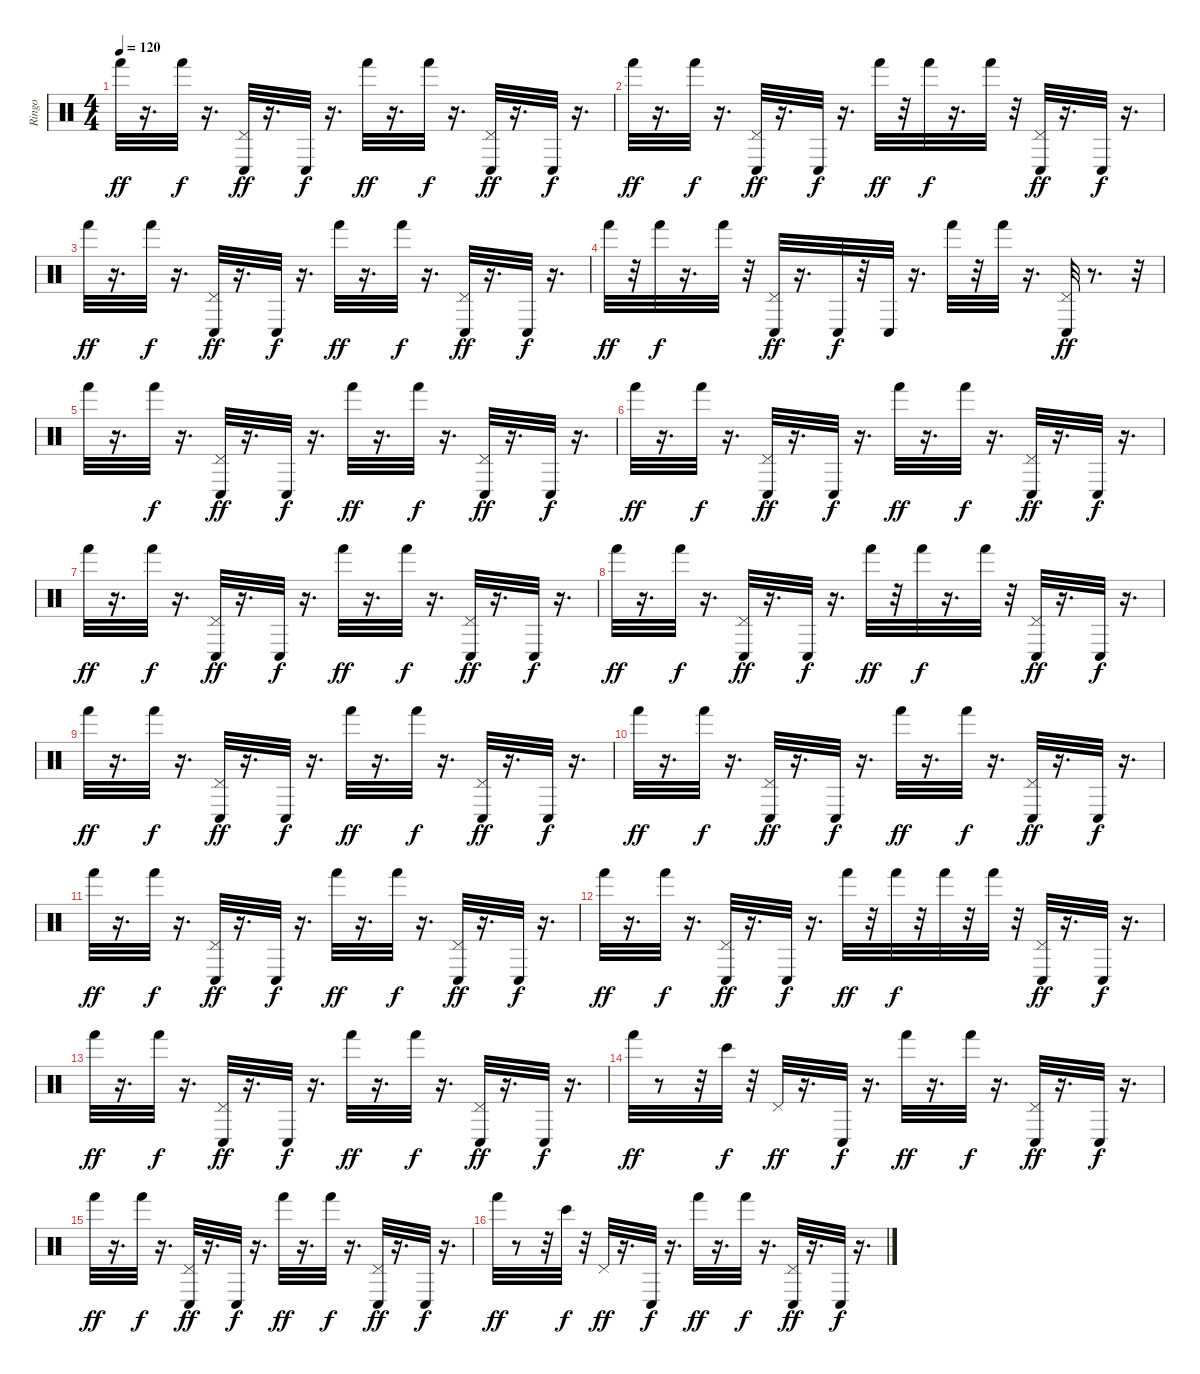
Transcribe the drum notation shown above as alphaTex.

\track ("Ringo" "Ringo") {instrument percussion}
\staff {score}
\articulation defaults
\ts (4 4)
\tempo 120
\clef neutral
\ks c "Hand (hit)".32{dy ff}
r.16{d} "Hand (hit)".32{dy f} r.16{d} ("Conga low (hit)" "Pedal Hi-Hat (hit)").32{dy ff} r.16{d} "Conga low (hit)".32{dy f} r.16{d} "Hand (hit)".32{dy ff} r.16{d} "Hand (hit)".32{dy f} r.16{d} ("Conga low (hit)" "Pedal Hi-Hat (hit)").32{dy ff} r.16{d} "Conga low (hit)".32{dy f} r.16{d} |
"Hand (hit)".32{dy ff} r.16{d} "Hand (hit)".32{dy f} r.16{d} ("Conga low (hit)" "Pedal Hi-Hat (hit)").32{dy ff} r.16{d} "Conga low (hit)".32{dy f} r.16{d} "Hand (hit)".32{dy ff} r.32 "Hand (hit)".32{dy f} r.16{d} "Hand (hit)".32 r.32 ("Pedal Hi-Hat (hit)" "Conga low (hit)").32{dy ff} r.16{d} "Conga low (hit)".32{dy f} r.16{d} |
"Hand (hit)".32{dy ff} r.16{d} "Hand (hit)".32{dy f} r.16{d} ("Pedal Hi-Hat (hit)" "Conga low (hit)").32{dy ff} r.16{d} "Conga low (hit)".32{dy f} r.16{d} "Hand (hit)".32{dy ff} r.16{d} "Hand (hit)".32{dy f} r.16{d} ("Pedal Hi-Hat (hit)" "Conga low (hit)").32{dy ff} r.16{d} "Conga low (hit)".32{dy f} r.16{d} |
"Hand (hit)".32{dy ff} r.32 "Hand (hit)".32{dy f} r.16{d} "Hand (hit)".32 r.32 ("Conga low (hit)" "Pedal Hi-Hat (hit)").32{dy ff} r.16{d} "Conga low (hit)".32{dy f} r.32 "Conga low (hit)".32 r.16{d} "Hand (hit)".32 r.32 "Hand (hit)".32 r.16{d} ("Pedal Hi-Hat (hit)" "Conga low (hit)").32{dy ff} r.8{d} r.32 |
"Hand (hit)".32 r.16{d} "Hand (hit)".32{dy f} r.16{d} ("Pedal Hi-Hat (hit)" "Conga low (hit)").32{dy ff} r.16{d} "Conga low (hit)".32{dy f} r.16{d} "Hand (hit)".32{dy ff} r.16{d} "Hand (hit)".32{dy f} r.16{d} ("Conga low (hit)" "Pedal Hi-Hat (hit)").32{dy ff} r.16{d} "Conga low (hit)".32{dy f} r.16{d} |
"Hand (hit)".32{dy ff} r.16{d} "Hand (hit)".32{dy f} r.16{d} ("Pedal Hi-Hat (hit)" "Conga low (hit)").32{dy ff} r.16{d} "Conga low (hit)".32{dy f} r.16{d} "Hand (hit)".32{dy ff} r.16{d} "Hand (hit)".32{dy f} r.16{d} ("Conga low (hit)" "Pedal Hi-Hat (hit)").32{dy ff} r.16{d} "Conga low (hit)".32{dy f} r.16{d} |
"Hand (hit)".32{dy ff} r.16{d} "Hand (hit)".32{dy f} r.16{d} ("Pedal Hi-Hat (hit)" "Conga low (hit)").32{dy ff} r.16{d} "Conga low (hit)".32{dy f} r.16{d} "Hand (hit)".32{dy ff} r.16{d} "Hand (hit)".32{dy f} r.16{d} ("Pedal Hi-Hat (hit)" "Conga low (hit)").32{dy ff} r.16{d} "Conga low (hit)".32{dy f} r.16{d} |
"Hand (hit)".32{dy ff} r.16{d} "Hand (hit)".32{dy f} r.16{d} ("Conga low (hit)" "Pedal Hi-Hat (hit)").32{dy ff} r.16{d} "Conga low (hit)".32{dy f} r.16{d} "Hand (hit)".32{dy ff} r.32 "Hand (hit)".32{dy f} r.16{d} "Hand (hit)".32 r.32 ("Conga low (hit)" "Pedal Hi-Hat (hit)").32{dy ff} r.16{d} "Conga low (hit)".32{dy f} r.16{d} |
"Hand (hit)".32{dy ff} r.16{d} "Hand (hit)".32{dy f} r.16{d} ("Pedal Hi-Hat (hit)" "Conga low (hit)").32{dy ff} r.16{d} "Conga low (hit)".32{dy f} r.16{d} "Hand (hit)".32{dy ff} r.16{d} "Hand (hit)".32{dy f} r.16{d} ("Pedal Hi-Hat (hit)" "Conga low (hit)").32{dy ff} r.16{d} "Conga low (hit)".32{dy f} r.16{d} |
"Hand (hit)".32{dy ff} r.16{d} "Hand (hit)".32{dy f} r.16{d} ("Conga low (hit)" "Pedal Hi-Hat (hit)").32{dy ff} r.16{d} "Conga low (hit)".32{dy f} r.16{d} "Hand (hit)".32{dy ff} r.16{d} "Hand (hit)".32{dy f} r.16{d} ("Conga low (hit)" "Pedal Hi-Hat (hit)").32{dy ff} r.16{d} "Conga low (hit)".32{dy f} r.16{d} |
"Hand (hit)".32{dy ff} r.16{d} "Hand (hit)".32{dy f} r.16{d} ("Pedal Hi-Hat (hit)" "Conga low (hit)").32{dy ff} r.16{d} "Conga low (hit)".32{dy f} r.16{d} "Hand (hit)".32{dy ff} r.16{d} "Hand (hit)".32{dy f} r.16{d} ("Conga low (hit)" "Pedal Hi-Hat (hit)").32{dy ff} r.16{d} "Conga low (hit)".32{dy f} r.16{d} |
"Hand (hit)".32{dy ff} r.16{d} "Hand (hit)".32{dy f} r.16{d} ("Conga low (hit)" "Pedal Hi-Hat (hit)").32{dy ff} r.16{d} "Conga low (hit)".32{dy f} r.16{d} "Hand (hit)".32{dy ff} r.32 "Hand (hit)".32{dy f} r.32 "Hand (hit)".32 r.32 "Hand (hit)".32 r.32 ("Conga low (hit)" "Pedal Hi-Hat (hit)").32{dy ff} r.16{d} "Conga low (hit)".32{dy f} r.16{d} |
"Hand (hit)".32{dy ff} r.16{d} "Hand (hit)".32{dy f} r.16{d} ("Conga low (hit)" "Pedal Hi-Hat (hit)").32{dy ff} r.16{d} "Conga low (hit)".32{dy f} r.16{d} "Hand (hit)".32{dy ff} r.16{d} "Hand (hit)".32{dy f} r.16{d} ("Pedal Hi-Hat (hit)" "Conga low (hit)").32{dy ff} r.16{d} "Conga low (hit)".32{dy f} r.16{d} |
"Hand (hit)".32{dy ff} r.8 r.32 "Bongo High (hit)".32{dy f} r.32 "Pedal Hi-Hat (hit)".32{dy ff} r.16{d} "Conga low (hit)".32{dy f} r.16{d} "Hand (hit)".32{dy ff} r.16{d} "Hand (hit)".32{dy f} r.16{d} ("Pedal Hi-Hat (hit)" "Conga low (hit)").32{dy ff} r.16{d} "Conga low (hit)".32{dy f} r.16{d} |
"Hand (hit)".32{dy ff} r.16{d} "Hand (hit)".32{dy f} r.16{d} ("Pedal Hi-Hat (hit)" "Conga low (hit)").32{dy ff} r.16{d} "Conga low (hit)".32{dy f} r.16{d} "Hand (hit)".32{dy ff} r.16{d} "Hand (hit)".32{dy f} r.16{d} ("Pedal Hi-Hat (hit)" "Conga low (hit)").32{dy ff} r.16{d} "Conga low (hit)".32{dy f} r.16{d} |
"Hand (hit)".32{dy ff} r.8 r.32 "Bongo High (hit)".32{dy f} r.32 "Pedal Hi-Hat (hit)".32{dy ff} r.16{d} "Conga low (hit)".32{dy f} r.16{d} "Hand (hit)".32{dy ff} r.16{d} "Hand (hit)".32{dy f} r.16{d} ("Conga low (hit)" "Pedal Hi-Hat (hit)").32{dy ff} r.16{d} "Conga low (hit)".32{dy f} r.16{d}
